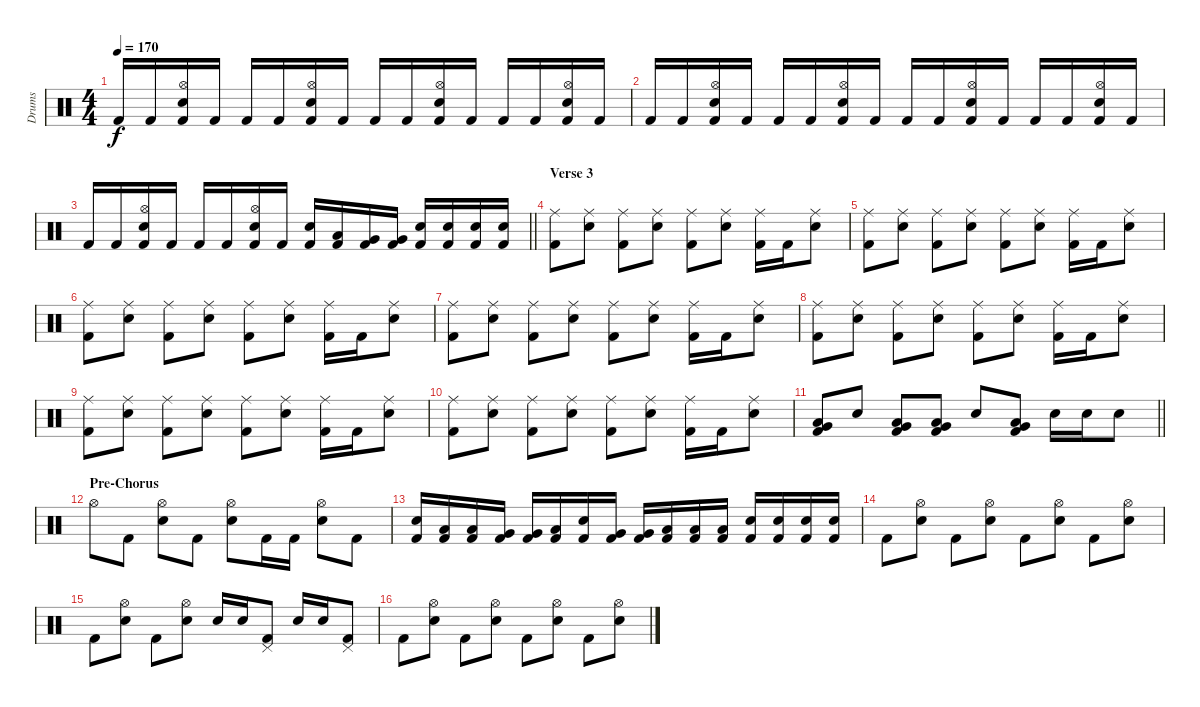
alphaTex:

\track ("Drums" "Drums") {instrument percussion}
\staff {score}
\articulation defaults
\ts (4 4)
\tempo 170
\clef neutral
\ks c "Kick (hit) 2".16{dy f} "Kick (hit) 2".16
("Hi-Hat (open)" "Electric Snare (hit)" "Kick (hit) 2").16 "Kick (hit) 2".16 "Kick (hit) 2".16 "Kick (hit) 2".16 ("Hi-Hat (open)" "Electric Snare (hit)" "Kick (hit) 2").16 "Kick (hit) 2".16 "Kick (hit) 2".16 "Kick (hit) 2".16 ("Hi-Hat (open)" "Electric Snare (hit)" "Kick (hit) 2").16 "Kick (hit) 2".16 "Kick (hit) 2".16 "Kick (hit) 2".16 ("Hi-Hat (open)" "Electric Snare (hit)" "Kick (hit) 2").16 "Kick (hit) 2".16 |
"Kick (hit) 2".16 "Kick (hit) 2".16 ("Hi-Hat (open)" "Electric Snare (hit)" "Kick (hit) 2").16 "Kick (hit) 2".16 "Kick (hit) 2".16 "Kick (hit) 2".16 ("Hi-Hat (open)" "Electric Snare (hit)" "Kick (hit) 2").16 "Kick (hit) 2".16 "Kick (hit) 2".16 "Kick (hit) 2".16 ("Hi-Hat (open)" "Electric Snare (hit)" "Kick (hit) 2").16 "Kick (hit) 2".16 "Kick (hit) 2".16 "Kick (hit) 2".16 ("Hi-Hat (open)" "Electric Snare (hit)" "Kick (hit) 2").16 "Kick (hit) 2".16 |
\barLineRight lightlight "Kick (hit) 2".16 "Kick (hit) 2".16
("Hi-Hat (open)" "Electric Snare (hit)" "Kick (hit) 2").16 "Kick (hit) 2".16 "Kick (hit) 2".16 "Kick (hit) 2".16 ("Hi-Hat (open)" "Electric Snare (hit)" "Kick (hit) 2").16 "Kick (hit) 2".16 ("Electric Snare (hit)" "Kick (hit) 2").16 ("Low Tom (hit)" "Kick (hit) 2").16 ("Very Low Tom (hit)" "Kick (hit) 2").16 ("Very Low Tom (hit)" "Kick (hit) 2").16 ("Electric Snare (hit)" "Kick (hit) 2").16 ("Electric Snare (hit)" "Kick (hit) 2").16 ("Electric Snare (hit)" "Kick (hit) 2").16 ("Electric Snare (hit)" "Kick (hit) 2").16 |
\section ("" "Verse 3")
("Ride (middle)" "Kick (hit) 2").8 ("Ride (middle)" "Electric Snare (hit)").8 ("Ride (middle)" "Kick (hit) 2").8 ("Ride (middle)" "Electric Snare (hit)").8 ("Ride (middle)" "Kick (hit) 2").8 ("Ride (middle)" "Electric Snare (hit)").8 ("Ride (middle)" "Kick (hit) 2").16 "Kick (hit) 2".16 ("Ride (middle)" "Electric Snare (hit)").8 |
("Ride (middle)" "Kick (hit) 2").8 ("Ride (middle)" "Electric Snare (hit)").8 ("Ride (middle)" "Kick (hit) 2").8 ("Ride (middle)" "Electric Snare (hit)").8 ("Ride (middle)" "Kick (hit) 2").8 ("Ride (middle)" "Electric Snare (hit)").8 ("Ride (middle)" "Kick (hit) 2").16 "Kick (hit) 2".16 ("Ride (middle)" "Electric Snare (hit)").8 |
("Ride (middle)" "Kick (hit) 2").8 ("Ride (middle)" "Electric Snare (hit)").8 ("Ride (middle)" "Kick (hit) 2").8 ("Ride (middle)" "Electric Snare (hit)").8 ("Ride (middle)" "Kick (hit) 2").8 ("Ride (middle)" "Electric Snare (hit)").8 ("Ride (middle)" "Kick (hit) 2").16 "Kick (hit) 2".16 ("Ride (middle)" "Electric Snare (hit)").8 |
("Ride (middle)" "Kick (hit) 2").8 ("Ride (middle)" "Electric Snare (hit)").8 ("Ride (middle)" "Kick (hit) 2").8 ("Ride (middle)" "Electric Snare (hit)").8 ("Ride (middle)" "Kick (hit) 2").8 ("Ride (middle)" "Electric Snare (hit)").8 ("Ride (middle)" "Kick (hit) 2").16 "Kick (hit) 2".16 ("Ride (middle)" "Electric Snare (hit)").8 |
("Ride (middle)" "Kick (hit) 2").8 ("Ride (middle)" "Electric Snare (hit)").8 ("Ride (middle)" "Kick (hit) 2").8 ("Ride (middle)" "Electric Snare (hit)").8 ("Ride (middle)" "Kick (hit) 2").8 ("Ride (middle)" "Electric Snare (hit)").8 ("Ride (middle)" "Kick (hit) 2").16 "Kick (hit) 2".16 ("Ride (middle)" "Electric Snare (hit)").8 |
("Ride (middle)" "Kick (hit) 2").8 ("Ride (middle)" "Electric Snare (hit)").8 ("Ride (middle)" "Kick (hit) 2").8 ("Ride (middle)" "Electric Snare (hit)").8 ("Ride (middle)" "Kick (hit) 2").8 ("Ride (middle)" "Electric Snare (hit)").8 ("Ride (middle)" "Kick (hit) 2").16 "Kick (hit) 2".16 ("Ride (middle)" "Electric Snare (hit)").8 |
("Ride (middle)" "Kick (hit) 2").8 ("Ride (middle)" "Electric Snare (hit)").8 ("Ride (middle)" "Kick (hit) 2").8 ("Ride (middle)" "Electric Snare (hit)").8 ("Ride (middle)" "Kick (hit) 2").8 ("Ride (middle)" "Electric Snare (hit)").8 ("Ride (middle)" "Kick (hit) 2").16 "Kick (hit) 2".16 ("Ride (middle)" "Electric Snare (hit)").8 |
\barLineRight lightlight
("Very Low Tom (hit)" "Low Tom (hit)" "Kick (hit) 2").8 "Electric Snare (hit)".8 ("Low Tom (hit)" "Very Low Tom (hit)" "Kick (hit) 2").8 ("Low Tom (hit)" "Very Low Tom (hit)" "Kick (hit) 2").8 "Electric Snare (hit)".8 ("Low Tom (hit)" "Very Low Tom (hit)" "Kick (hit) 2").8 "Electric Snare (hit)".16 "Electric Snare (hit)".16 "Electric Snare (hit)".8 |
\section ("" "Pre-Chorus")
"Hi-Hat (open)".8 "Kick (hit) 2".8 ("Hi-Hat (open)" "Electric Snare (hit)").8 "Kick (hit) 2".8 ("Hi-Hat (open)" "Electric Snare (hit)").8 "Kick (hit) 2".16 "Kick (hit) 2".16 ("Hi-Hat (open)" "Electric Snare (hit)").8 "Kick (hit) 2".8 |
("Electric Snare (hit)" "Kick (hit) 2").16 ("Low Tom (hit)" "Kick (hit) 2").16 ("Low Tom (hit)" "Kick (hit) 2").16 ("Very Low Tom (hit)" "Kick (hit) 2").16 ("Very Low Tom (hit)" "Kick (hit) 2").16 ("Low Floor Tom (hit)" "Kick (hit) 2").16 ("Electric Snare (hit)" "Kick (hit) 2").16 ("Very Low Tom (hit)" "Kick (hit) 2").16 ("Very Low Tom (hit)" "Kick (hit) 2").16 ("Low Floor Tom (hit)" "Kick (hit) 2").16 ("Low Floor Tom (hit)" "Kick (hit) 2").16 ("Low Tom (hit)" "Kick (hit) 2").16 ("Electric Snare (hit)" "Kick (hit) 2").16 ("Electric Snare (hit)" "Kick (hit) 2").16 ("Electric Snare (hit)" "Kick (hit) 2").16 ("Electric Snare (hit)" "Kick (hit) 2").16 |
"Kick (hit) 2".8 ("Hi-Hat (open)" "Electric Snare (hit)").8 "Kick (hit) 2".8 ("Hi-Hat (open)" "Electric Snare (hit)").8 "Kick (hit) 2".8 ("Hi-Hat (open)" "Electric Snare (hit)").8 "Kick (hit) 2".8 ("Hi-Hat (open)" "Electric Snare (hit)").8 |
"Kick (hit) 2".8 ("Hi-Hat (open)" "Electric Snare (hit)").8 "Kick (hit) 2".8 ("Hi-Hat (open)" "Electric Snare (hit)").8 "Electric Snare (hit)".16 "Electric Snare (hit)".16 ("Pedal Hi-Hat (hit)" "Kick (hit) 2").8 "Electric Snare (hit)".16 "Electric Snare (hit)".16 ("Pedal Hi-Hat (hit)" "Kick (hit) 2").8 |
"Kick (hit) 2".8 ("Hi-Hat (open)" "Electric Snare (hit)").8 "Kick (hit) 2".8 ("Hi-Hat (open)" "Electric Snare (hit)").8 "Kick (hit) 2".8 ("Hi-Hat (open)" "Electric Snare (hit)").8 "Kick (hit) 2".8 ("Hi-Hat (open)" "Electric Snare (hit)").8
